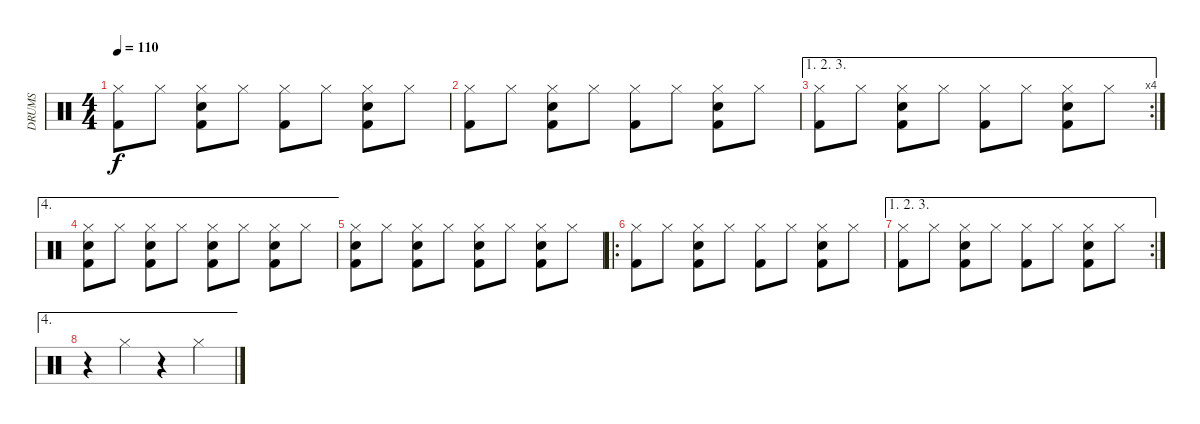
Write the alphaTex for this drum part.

\track ("DRUMS" "DRUMS") {instrument percussion}
\staff {score}
\articulation defaults
\ts (4 4)
\tempo 110
\clef neutral
\ks c
("Hi-Hat (closed)" "Kick (hit) 2").8{dy f} "Hi-Hat (closed)".8 ("Hi-Hat (closed)" "Snare (hit) 2" "Kick (hit) 2").8 "Hi-Hat (closed)".8 ("Hi-Hat (closed)" "Kick (hit) 2").8 "Hi-Hat (closed)".8 ("Hi-Hat (closed)" "Snare (hit) 2" "Kick (hit) 2").8 "Hi-Hat (closed)".8 |
("Hi-Hat (closed)" "Kick (hit) 2").8 "Hi-Hat (closed)".8 ("Hi-Hat (closed)" "Snare (hit) 2" "Kick (hit) 2").8 "Hi-Hat (closed)".8 ("Hi-Hat (closed)" "Kick (hit) 2").8 "Hi-Hat (closed)".8 ("Hi-Hat (closed)" "Snare (hit) 2" "Kick (hit) 2").8 "Hi-Hat (closed)".8 |
\ae (1 2 3)
\rc 4
("Hi-Hat (closed)" "Kick (hit) 2").8 "Hi-Hat (closed)".8 ("Hi-Hat (closed)" "Snare (hit) 2" "Kick (hit) 2").8 "Hi-Hat (closed)".8 ("Hi-Hat (closed)" "Kick (hit) 2").8 "Hi-Hat (closed)".8 ("Hi-Hat (closed)" "Snare (hit) 2" "Kick (hit) 2").8 "Hi-Hat (closed)".8 |
\ae 4
("Hi-Hat (closed)" "Snare (hit) 2" "Kick (hit) 2").8 "Hi-Hat (closed)".8 ("Hi-Hat (closed)" "Snare (hit) 2" "Kick (hit) 2").8 "Hi-Hat (closed)".8 ("Hi-Hat (closed)" "Snare (hit) 2" "Kick (hit) 2").8 "Hi-Hat (closed)".8 ("Hi-Hat (closed)" "Snare (hit) 2" "Kick (hit) 2").8 "Hi-Hat (closed)".8 |
("Hi-Hat (closed)" "Snare (hit) 2" "Kick (hit) 2").8 "Hi-Hat (closed)".8 ("Hi-Hat (closed)" "Snare (hit) 2" "Kick (hit) 2").8 "Hi-Hat (closed)".8 ("Hi-Hat (closed)" "Snare (hit) 2" "Kick (hit) 2").8 "Hi-Hat (closed)".8 ("Hi-Hat (closed)" "Snare (hit) 2" "Kick (hit) 2").8 "Hi-Hat (closed)".8 |
\ro
("Hi-Hat (closed)" "Kick (hit) 2").8 "Hi-Hat (closed)".8 ("Hi-Hat (closed)" "Snare (hit) 2" "Kick (hit) 2").8 "Hi-Hat (closed)".8 ("Hi-Hat (closed)" "Kick (hit) 2").8 "Hi-Hat (closed)".8 ("Hi-Hat (closed)" "Snare (hit) 2" "Kick (hit) 2").8 "Hi-Hat (closed)".8 |
\ae (1 2 3)
\rc 2
("Hi-Hat (closed)" "Kick (hit) 2").8 "Hi-Hat (closed)".8 ("Hi-Hat (closed)" "Snare (hit) 2" "Kick (hit) 2").8 "Hi-Hat (closed)".8 ("Hi-Hat (closed)" "Kick (hit) 2").8 "Hi-Hat (closed)".8 ("Hi-Hat (closed)" "Snare (hit) 2" "Kick (hit) 2").8 "Hi-Hat (closed)".8 |
\ae 4
r.4 "Hi-Hat (closed)".4 r.4 "Hi-Hat (closed)".4
